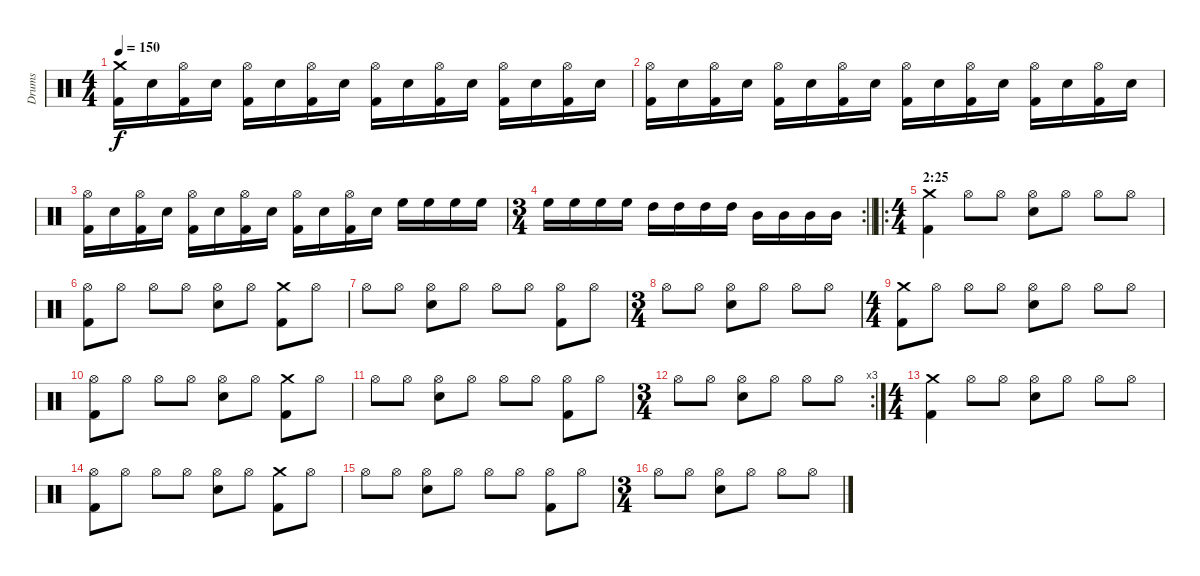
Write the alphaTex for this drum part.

\track ("Drums" "Drums") {instrument percussion}
\staff {score}
\articulation defaults
\ts (4 4)
\tempo 150
\clef neutral
\ks c
("Crash medium (hit)" "Kick (hit) 2").16{dy f} "Electric Snare (hit)".16 ("Hi-Hat (open)" "Kick (hit) 2").16 "Electric Snare (hit)".16 ("Hi-Hat (open)" "Kick (hit) 2").16 "Electric Snare (hit)".16 ("Hi-Hat (open)" "Kick (hit) 2").16 "Electric Snare (hit)".16 ("Hi-Hat (open)" "Kick (hit) 2").16 "Electric Snare (hit)".16 ("Hi-Hat (open)" "Kick (hit) 2").16 "Electric Snare (hit)".16 ("Hi-Hat (open)" "Kick (hit) 2").16 "Electric Snare (hit)".16 ("Hi-Hat (open)" "Kick (hit) 2").16 "Electric Snare (hit)".16 |
("Hi-Hat (open)" "Kick (hit) 2").16 "Electric Snare (hit)".16 ("Hi-Hat (open)" "Kick (hit) 2").16 "Electric Snare (hit)".16 ("Hi-Hat (open)" "Kick (hit) 2").16 "Electric Snare (hit)".16 ("Hi-Hat (open)" "Kick (hit) 2").16 "Electric Snare (hit)".16 ("Hi-Hat (open)" "Kick (hit) 2").16 "Electric Snare (hit)".16 ("Hi-Hat (open)" "Kick (hit) 2").16 "Electric Snare (hit)".16 ("Hi-Hat (open)" "Kick (hit) 2").16 "Electric Snare (hit)".16 ("Hi-Hat (open)" "Kick (hit) 2").16 "Electric Snare (hit)".16 |
("Hi-Hat (open)" "Kick (hit) 2").16 "Electric Snare (hit)".16 ("Hi-Hat (open)" "Kick (hit) 2").16 "Electric Snare (hit)".16 ("Hi-Hat (open)" "Kick (hit) 2").16 "Electric Snare (hit)".16 ("Hi-Hat (open)" "Kick (hit) 2").16 "Electric Snare (hit)".16 ("Hi-Hat (open)" "Kick (hit) 2").16 "Electric Snare (hit)".16 ("Hi-Hat (open)" "Kick (hit) 2").16 "Electric Snare (hit)".16 "High Floor Tom (hit)".16 "High Floor Tom (hit)".16 "High Floor Tom (hit)".16 "High Floor Tom (hit)".16 |
\rc 2
\ts (3 4)
\barLineRight lightlight "High Floor Tom (hit)".16 "High Floor Tom (hit)".16 "High Floor Tom (hit)".16 "High Floor Tom (hit)".16 "High Tom (hit)".16 "High Tom (hit)".16 "High Tom (hit)".16 "High Tom (hit)".16 "Mid Tom (hit)".16 "Mid Tom (hit)".16 "Mid Tom (hit)".16 "Mid Tom (hit)".16
|
\ro
\ts (4 4)
\section ("" "2:25")
("Crash medium (hit)" "Kick (hit) 2").4 "Hi-Hat (open)".8 "Hi-Hat (open)".8 ("Hi-Hat (open)" "Electric Snare (hit)").8 "Hi-Hat (open)".8 "Hi-Hat (open)".8 "Hi-Hat (open)".8 |
("Hi-Hat (open)" "Kick (hit) 2").8 "Hi-Hat (open)".8 "Hi-Hat (open)".8 "Hi-Hat (open)".8 ("Hi-Hat (open)" "Electric Snare (hit)").8 "Hi-Hat (open)".8 ("Crash medium (hit)" "Kick (hit) 2").8 "Hi-Hat (open)".8 |
"Hi-Hat (open)".8 "Hi-Hat (open)".8 ("Hi-Hat (open)" "Electric Snare (hit)").8 "Hi-Hat (open)".8 "Hi-Hat (open)".8 "Hi-Hat (open)".8 ("Hi-Hat (open)" "Kick (hit) 2").8 "Hi-Hat (open)".8 |
\ts (3 4)
"Hi-Hat (open)".8 "Hi-Hat (open)".8 ("Hi-Hat (open)" "Electric Snare (hit)").8 "Hi-Hat (open)".8 "Hi-Hat (open)".8 "Hi-Hat (open)".8 |
\ts (4 4)
("Crash medium (hit)" "Kick (hit) 2").8 "Hi-Hat (open)".8 "Hi-Hat (open)".8 "Hi-Hat (open)".8 ("Hi-Hat (open)" "Electric Snare (hit)").8 "Hi-Hat (open)".8 "Hi-Hat (open)".8 "Hi-Hat (open)".8 |
("Hi-Hat (open)" "Kick (hit) 2").8 "Hi-Hat (open)".8 "Hi-Hat (open)".8 "Hi-Hat (open)".8 ("Hi-Hat (open)" "Electric Snare (hit)").8 "Hi-Hat (open)".8 ("Crash medium (hit)" "Kick (hit) 2").8 "Hi-Hat (open)".8 |
"Hi-Hat (open)".8 "Hi-Hat (open)".8 ("Hi-Hat (open)" "Electric Snare (hit)").8 "Hi-Hat (open)".8 "Hi-Hat (open)".8 "Hi-Hat (open)".8 ("Hi-Hat (open)" "Kick (hit) 2").8 "Hi-Hat (open)".8 |
\rc 3
\ts (3 4)
"Hi-Hat (open)".8 "Hi-Hat (open)".8 ("Hi-Hat (open)" "Electric Snare (hit)").8 "Hi-Hat (open)".8 "Hi-Hat (open)".8 "Hi-Hat (open)".8 |
\ts (4 4)
("Crash medium (hit)" "Kick (hit) 2").4 "Hi-Hat (open)".8 "Hi-Hat (open)".8 ("Hi-Hat (open)" "Electric Snare (hit)").8 "Hi-Hat (open)".8 "Hi-Hat (open)".8 "Hi-Hat (open)".8 |
("Hi-Hat (open)" "Kick (hit) 2").8 "Hi-Hat (open)".8 "Hi-Hat (open)".8 "Hi-Hat (open)".8 ("Hi-Hat (open)" "Electric Snare (hit)").8 "Hi-Hat (open)".8 ("Crash medium (hit)" "Kick (hit) 2").8 "Hi-Hat (open)".8 |
"Hi-Hat (open)".8 "Hi-Hat (open)".8 ("Hi-Hat (open)" "Electric Snare (hit)").8 "Hi-Hat (open)".8 "Hi-Hat (open)".8 "Hi-Hat (open)".8 ("Hi-Hat (open)" "Kick (hit) 2").8 "Hi-Hat (open)".8 |
\ts (3 4)
"Hi-Hat (open)".8 "Hi-Hat (open)".8 ("Hi-Hat (open)" "Electric Snare (hit)").8 "Hi-Hat (open)".8 "Hi-Hat (open)".8 "Hi-Hat (open)".8
